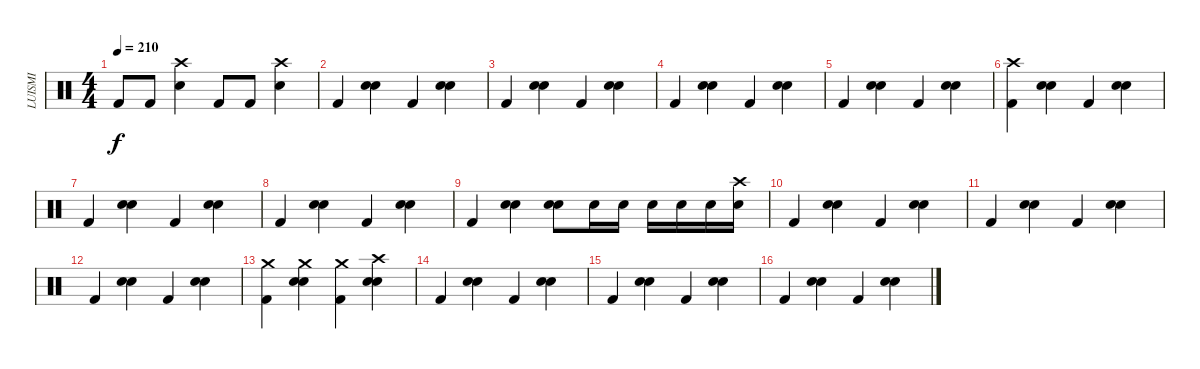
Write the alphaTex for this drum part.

\track ("LUISMI" "LUISMI") {instrument percussion}
\staff {score}
\articulation defaults
\ts (4 4)
\tempo 210
\clef neutral
\ks c "Kick (hit) 2".8{dy f} "Kick (hit) 2".8
("Crash high (hit)" "Electric Snare (hit)").4 "Kick (hit) 2".8 "Kick (hit) 2".8 ("Crash high (hit)" "Electric Snare (hit)").4 |
"Kick (hit) 2".4 ("Electric Snare (hit)" "Snare (hit) 2").4 "Kick (hit) 2".4 ("Electric Snare (hit)" "Snare (hit) 2").4 |
"Kick (hit) 2".4 ("Electric Snare (hit)" "Snare (hit) 2").4 "Kick (hit) 2".4 ("Electric Snare (hit)" "Snare (hit) 2").4 |
"Kick (hit) 2".4 ("Snare (hit) 2" "Electric Snare (hit)").4 "Kick (hit) 2".4 ("Electric Snare (hit)" "Snare (hit) 2").4 |
"Kick (hit) 2".4 ("Electric Snare (hit)" "Snare (hit) 2").4 "Kick (hit) 2".4 ("Electric Snare (hit)" "Snare (hit) 2").4 |
("Crash high (hit)" "Kick (hit) 2").4 ("Electric Snare (hit)" "Snare (hit) 2").4 "Kick (hit) 2".4 ("Electric Snare (hit)" "Snare (hit) 2").4 |
"Kick (hit) 2".4 ("Electric Snare (hit)" "Snare (hit) 2").4 "Kick (hit) 2".4 ("Electric Snare (hit)" "Snare (hit) 2").4 |
"Kick (hit) 2".4 ("Snare (hit) 2" "Electric Snare (hit)").4 "Kick (hit) 2".4 ("Electric Snare (hit)" "Snare (hit) 2").4 |
"Kick (hit) 2".4 ("Snare (hit) 2" "Electric Snare (hit)").4 ("Snare (hit) 2" "Electric Snare (hit)").8 "Electric Snare (hit)".16 "Electric Snare (hit)".16 "Electric Snare (hit)".16 "Electric Snare (hit)".16 "Electric Snare (hit)".16 ("Crash high (hit)" "Electric Snare (hit)").16 |
"Kick (hit) 2".4 ("Electric Snare (hit)" "Snare (hit) 2").4 "Kick (hit) 2".4 ("Electric Snare (hit)" "Snare (hit) 2").4 |
"Kick (hit) 2".4 ("Electric Snare (hit)" "Snare (hit) 2").4 "Kick (hit) 2".4 ("Electric Snare (hit)" "Snare (hit) 2").4 |
"Kick (hit) 2".4 ("Electric Snare (hit)" "Snare (hit) 2").4 "Kick (hit) 2".4 ("Electric Snare (hit)" "Snare (hit) 2").4 |
("Crash medium (hit)" "Kick (hit) 2").4 ("Crash medium (hit)" "Electric Snare (hit)" "Snare (hit) 2").4 ("Crash medium (hit)" "Kick (hit) 2").4 ("Crash high (hit)" "Electric Snare (hit)" "Snare (hit) 2").4 |
"Kick (hit) 2".4 ("Electric Snare (hit)" "Snare (hit) 2").4 "Kick (hit) 2".4 ("Electric Snare (hit)" "Snare (hit) 2").4 |
"Kick (hit) 2".4 ("Electric Snare (hit)" "Snare (hit) 2").4 "Kick (hit) 2".4 ("Electric Snare (hit)" "Snare (hit) 2").4 |
"Kick (hit) 2".4 ("Electric Snare (hit)" "Snare (hit) 2").4 "Kick (hit) 2".4 ("Electric Snare (hit)" "Snare (hit) 2").4
